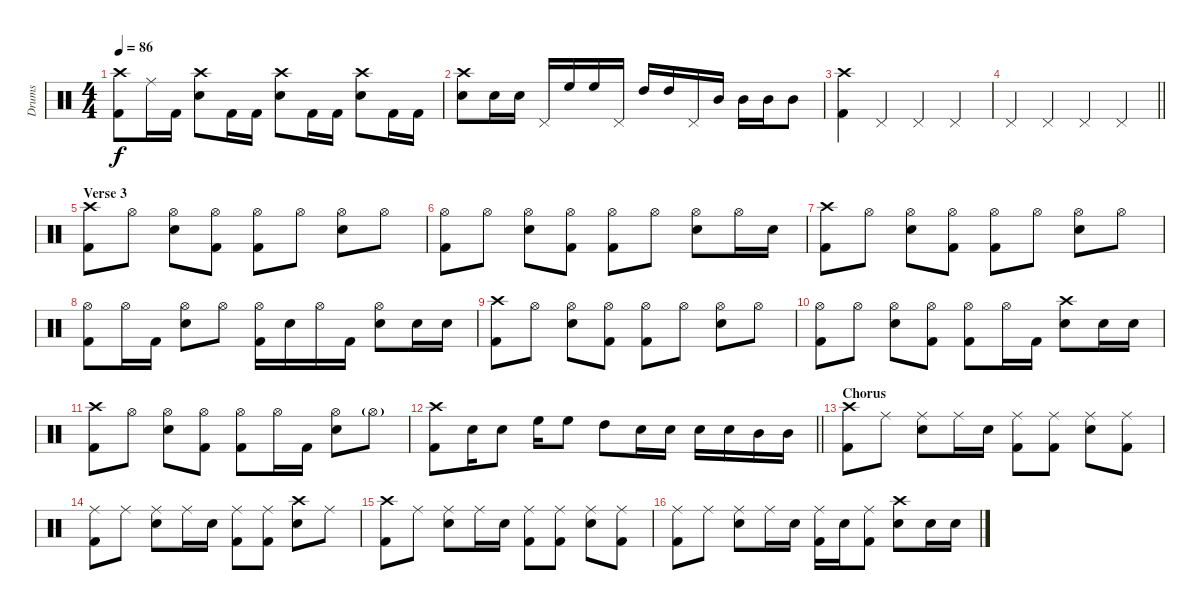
\track ("Drums" "Drums") {instrument percussion}
\staff {score}
\articulation defaults
\ts (4 4)
\tempo 86
\clef neutral
\ks c
("Crash high (hit)" "Kick (hit) 2").8{dy f} "Ride (middle)".16 "Kick (hit) 2".16 ("Crash high (hit)" "Snare (hit) 2").8 "Kick (hit) 2".16 "Kick (hit) 2".16 ("Crash high (hit)" "Snare (hit) 2").8 "Kick (hit) 2".16 "Kick (hit) 2".16 ("Crash high (hit)" "Snare (hit) 2").8 "Kick (hit) 2".16 "Kick (hit) 2".16 |
("Crash high (hit)" "Snare (hit) 2").8 "Snare (hit) 2".16 "Snare (hit) 2".16 "Pedal Hi-Hat (hit)".16 "High Floor Tom (hit)".16 "High Floor Tom (hit)".16 "Pedal Hi-Hat (hit)".16 "High Tom (hit)".16 "High Tom (hit)".16 "Pedal Hi-Hat (hit)".16 "Mid Tom (hit)".16 "Mid Tom (hit)".16 "Mid Tom (hit)".16 "Mid Tom (hit)".8 |
("Crash high (hit)" "Kick (hit) 2").4 "Pedal Hi-Hat (hit)".4 "Pedal Hi-Hat (hit)".4 "Pedal Hi-Hat (hit)".4 |
\barLineRight lightlight "Pedal Hi-Hat (hit)".4 "Pedal Hi-Hat (hit)".4 "Pedal Hi-Hat (hit)".4 "Pedal Hi-Hat (hit)".4
|
\section ("" "Verse 3")
("Crash high (hit)" "Kick (hit) 2").8 "Hi-Hat (open)".8 ("Hi-Hat (open)" "Snare (hit) 2").8 ("Hi-Hat (open)" "Kick (hit) 2").8 ("Hi-Hat (open)" "Kick (hit) 2").8 "Hi-Hat (open)".8 ("Hi-Hat (open)" "Snare (hit) 2").8 "Hi-Hat (open)".8 |
("Hi-Hat (open)" "Kick (hit) 2").8 "Hi-Hat (open)".8 ("Hi-Hat (open)" "Snare (hit) 2").8 ("Hi-Hat (open)" "Kick (hit) 2").8 ("Hi-Hat (open)" "Kick (hit) 2").8 "Hi-Hat (open)".8 ("Hi-Hat (open)" "Snare (hit) 2").8 "Hi-Hat (open)".16 "Snare (hit) 2".16 |
("Crash high (hit)" "Kick (hit) 2").8 "Hi-Hat (open)".8 ("Hi-Hat (open)" "Snare (hit) 2").8 ("Hi-Hat (open)" "Kick (hit) 2").8 ("Hi-Hat (open)" "Kick (hit) 2").8 "Hi-Hat (open)".8 ("Hi-Hat (open)" "Snare (hit) 2").8 "Hi-Hat (open)".8 |
("Hi-Hat (open)" "Kick (hit) 2").8 "Hi-Hat (open)".16 "Kick (hit) 2".16 ("Hi-Hat (open)" "Snare (hit) 2").8 "Hi-Hat (open)".8 ("Hi-Hat (open)" "Kick (hit) 2").16 "Snare (hit) 2".16 "Hi-Hat (open)".16 "Kick (hit) 2".16 ("Hi-Hat (open)" "Snare (hit) 2").8 "Snare (hit) 2".16 "Snare (hit) 2".16 |
("Crash high (hit)" "Kick (hit) 2").8 "Hi-Hat (open)".8 ("Hi-Hat (open)" "Snare (hit) 2").8 ("Hi-Hat (open)" "Kick (hit) 2").8 ("Hi-Hat (open)" "Kick (hit) 2").8 "Hi-Hat (open)".8 ("Hi-Hat (open)" "Snare (hit) 2").8 "Hi-Hat (open)".8 |
("Hi-Hat (open)" "Kick (hit) 2").8 "Hi-Hat (open)".8 ("Hi-Hat (open)" "Snare (hit) 2").8 ("Hi-Hat (open)" "Kick (hit) 2").8 ("Hi-Hat (open)" "Kick (hit) 2").8 "Hi-Hat (open)".16 "Kick (hit) 2".16 ("Crash high (hit)" "Snare (hit) 2").8 "Snare (hit) 2".16 "Snare (hit) 2".16 |
("Crash high (hit)" "Kick (hit) 2").8 "Hi-Hat (open)".8 ("Hi-Hat (open)" "Snare (hit) 2").8 ("Hi-Hat (open)" "Kick (hit) 2").8 ("Hi-Hat (open)" "Kick (hit) 2").8 "Hi-Hat (open)".16 "Kick (hit) 2".16 ("Hi-Hat (open)" "Snare (hit) 2").8 "Hi-Hat (open)"{g}.8 |
\barLineRight lightlight
("Crash high (hit)" "Kick (hit) 2").8 "Snare (hit) 2".16 "Snare (hit) 2".8 "High Floor Tom (hit)".16 "High Floor Tom (hit)".8 "High Tom (hit)".8 "Snare (hit) 2".16 "Snare (hit) 2".16 "Snare (hit) 2".16 "Snare (hit) 2".16 "Mid Tom (hit)".16 "Mid Tom (hit)".16 |
\section ("" "Chorus")
("Crash high (hit)" "Kick (hit) 2").8 "Ride (middle)".8 ("Ride (middle)" "Snare (hit) 2").8 "Ride (middle)".16 "Snare (hit) 2".16 ("Ride (middle)" "Kick (hit) 2").8 ("Ride (middle)" "Kick (hit) 2").8 ("Ride (middle)" "Snare (hit) 2").8 ("Ride (middle)" "Kick (hit) 2").8 |
("Ride (middle)" "Kick (hit) 2").8 "Ride (middle)".8 ("Ride (middle)" "Snare (hit) 2").8 "Ride (middle)".16 "Snare (hit) 2".16 ("Ride (middle)" "Kick (hit) 2").8 ("Ride (middle)" "Kick (hit) 2").8 ("Crash high (hit)" "Snare (hit) 2").8 "Ride (middle)".8 |
("Crash high (hit)" "Kick (hit) 2").8 "Ride (middle)".8 ("Ride (middle)" "Snare (hit) 2").8 "Ride (middle)".16 "Snare (hit) 2".16 ("Ride (middle)" "Kick (hit) 2").8 ("Ride (middle)" "Kick (hit) 2").8 ("Ride (middle)" "Snare (hit) 2").8 ("Ride (middle)" "Kick (hit) 2").8 |
("Ride (middle)" "Kick (hit) 2").8 "Ride (middle)".8 ("Ride (middle)" "Snare (hit) 2").8 "Ride (middle)".16 "Snare (hit) 2".16 ("Ride (middle)" "Kick (hit) 2").16 "Snare (hit) 2".16 ("Ride (middle)" "Kick (hit) 2").8 ("Crash high (hit)" "Snare (hit) 2").8 "Snare (hit) 2".16 "Snare (hit) 2".16
